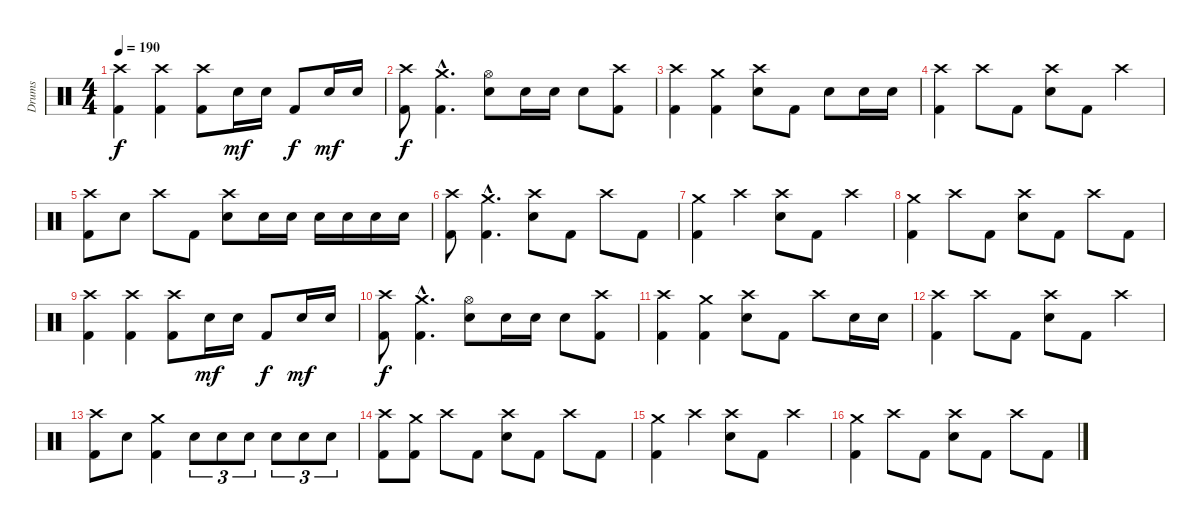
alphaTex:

\track ("Drums" "Drums") {instrument percussion}
\staff {score}
\articulation defaults
\ts (4 4)
\tempo 190
\clef neutral
\ks c
("Crash high (hit)" "Kick (hit) 2").4{dy f} ("Crash high (hit)" "Kick (hit) 2").4 ("Crash high (hit)" "Kick (hit) 2").8 "Electric Snare (hit)".16{dy mf} "Electric Snare (hit)".16 "Kick (hit) 2".8{dy f} "Electric Snare (hit)".16{dy mf} "Electric Snare (hit)".16 |
("Crash high (hit)" "Kick (hit) 2").8{dy f} ("Crash medium (hit)"{hac} "Kick (hit) 2"{hac}).4{d} ("Hi-Hat (open)" "Electric Snare (hit)").8 "Electric Snare (hit)".16 "Electric Snare (hit)".16 "Electric Snare (hit)".8 ("Crash high (hit)" "Kick (hit) 2").8 |
("Crash high (hit)" "Kick (hit) 2").4 ("Crash medium (hit)" "Kick (hit) 2").4 ("Crash high (hit)" "Electric Snare (hit)").8 "Kick (hit) 2".8 "Electric Snare (hit)".8 "Electric Snare (hit)".16 "Electric Snare (hit)".16 |
("Crash high (hit)" "Kick (hit) 2").4 "Crash high (hit)".8 "Kick (hit) 2".8 ("Crash high (hit)" "Electric Snare (hit)").8 "Kick (hit) 2".8 "Crash high (hit)".4 |
("Crash high (hit)" "Kick (hit) 2").8 "Electric Snare (hit)".8 "Crash high (hit)".8 "Kick (hit) 2".8 ("Crash high (hit)" "Electric Snare (hit)").8 "Electric Snare (hit)".16 "Electric Snare (hit)".16 "Electric Snare (hit)".16 "Electric Snare (hit)".16 "Electric Snare (hit)".16 "Electric Snare (hit)".16 |
("Crash high (hit)" "Kick (hit) 2").8 ("Crash medium (hit)"{hac} "Kick (hit) 2"{hac}).4{d} ("Crash high (hit)" "Electric Snare (hit)").8 "Kick (hit) 2".8 "Crash high (hit)".8 "Kick (hit) 2".8 |
("Crash medium (hit)" "Kick (hit) 2").4 "Crash high (hit)".4 ("Crash high (hit)" "Electric Snare (hit)").8 "Kick (hit) 2".8 "Crash high (hit)".4 |
("Crash medium (hit)" "Kick (hit) 2").4 "Crash high (hit)".8 "Kick (hit) 2".8 ("Crash high (hit)" "Electric Snare (hit)").8 "Kick (hit) 2".8 "Crash high (hit)".8 "Kick (hit) 2".8 |
("Crash high (hit)" "Kick (hit) 2").4 ("Crash high (hit)" "Kick (hit) 2").4 ("Crash high (hit)" "Kick (hit) 2").8 "Electric Snare (hit)".16{dy mf} "Electric Snare (hit)".16 "Kick (hit) 2".8{dy f} "Electric Snare (hit)".16{dy mf} "Electric Snare (hit)".16 |
("Crash high (hit)" "Kick (hit) 2").8{dy f} ("Crash medium (hit)"{hac} "Kick (hit) 2"{hac}).4{d} ("Hi-Hat (open)" "Electric Snare (hit)").8 "Electric Snare (hit)".16 "Electric Snare (hit)".16 "Electric Snare (hit)".8 ("Crash high (hit)" "Kick (hit) 2").8 |
("Crash high (hit)" "Kick (hit) 2").4 ("Crash medium (hit)" "Kick (hit) 2").4 ("Crash high (hit)" "Electric Snare (hit)").8 "Kick (hit) 2".8 "Crash high (hit)".8 "Electric Snare (hit)".16 "Electric Snare (hit)".16 |
("Crash high (hit)" "Kick (hit) 2").4 "Crash high (hit)".8 "Kick (hit) 2".8 ("Crash high (hit)" "Electric Snare (hit)").8 "Kick (hit) 2".8 "Crash high (hit)".4 |
("Crash high (hit)" "Kick (hit) 2").8 "Electric Snare (hit)".8 ("Crash medium (hit)" "Kick (hit) 2").4 "Electric Snare (hit)".8{tu (3 2)} "Electric Snare (hit)".8{tu (3 2)} "Electric Snare (hit)".8{tu (3 2)} "Electric Snare (hit)".8{tu (3 2)} "Electric Snare (hit)".8{tu (3 2)} "Electric Snare (hit)".8{tu (3 2)} |
("Crash high (hit)" "Kick (hit) 2").8 ("Crash medium (hit)" "Kick (hit) 2").8 "Crash high (hit)".8 "Kick (hit) 2".8 ("Crash high (hit)" "Electric Snare (hit)").8 "Kick (hit) 2".8 "Crash high (hit)".8 "Kick (hit) 2".8 |
("Crash medium (hit)" "Kick (hit) 2").4 "Crash high (hit)".4 ("Crash high (hit)" "Electric Snare (hit)").8 "Kick (hit) 2".8 "Crash high (hit)".4 |
("Crash medium (hit)" "Kick (hit) 2").4 "Crash high (hit)".8 "Kick (hit) 2".8 ("Crash high (hit)" "Electric Snare (hit)").8 "Kick (hit) 2".8 "Crash high (hit)".8 "Kick (hit) 2".8
